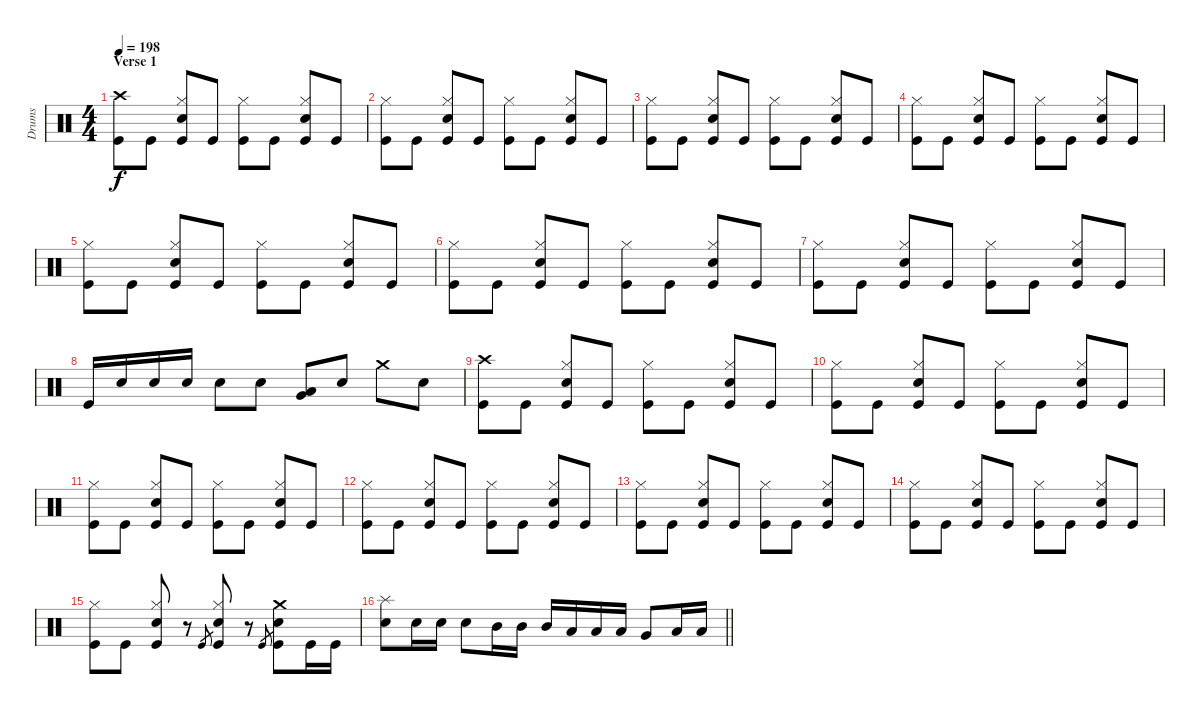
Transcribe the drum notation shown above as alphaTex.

\track ("Drums" "Drums") {instrument percussion}
\staff {score}
\articulation defaults
\ts (4 4)
\section ("" "Verse 1")
\tempo 198
\clef neutral
\ks c
("Crash high (hit)" "Kick (hit)").8{dy f} "Kick (hit)".8 ("Hi-Hat (closed)" "Electric Snare (hit)" "Kick (hit)").8 "Kick (hit)".8 ("Hi-Hat (closed)" "Kick (hit)").8 "Kick (hit)".8 ("Hi-Hat (closed)" "Electric Snare (hit)" "Kick (hit)").8 "Kick (hit)".8 |
("Hi-Hat (closed)" "Kick (hit)").8 "Kick (hit)".8 ("Hi-Hat (closed)" "Electric Snare (hit)" "Kick (hit)").8 "Kick (hit)".8 ("Hi-Hat (closed)" "Kick (hit)").8 "Kick (hit)".8 ("Hi-Hat (closed)" "Electric Snare (hit)" "Kick (hit)").8 "Kick (hit)".8 |
("Hi-Hat (closed)" "Kick (hit)").8 "Kick (hit)".8 ("Hi-Hat (closed)" "Electric Snare (hit)" "Kick (hit)").8 "Kick (hit)".8 ("Hi-Hat (closed)" "Kick (hit)").8 "Kick (hit)".8 ("Hi-Hat (closed)" "Electric Snare (hit)" "Kick (hit)").8 "Kick (hit)".8 |
("Hi-Hat (closed)" "Kick (hit)").8 "Kick (hit)".8 ("Hi-Hat (closed)" "Electric Snare (hit)" "Kick (hit)").8 "Kick (hit)".8 ("Hi-Hat (closed)" "Kick (hit)").8 "Kick (hit)".8 ("Hi-Hat (closed)" "Electric Snare (hit)" "Kick (hit)").8 "Kick (hit)".8 |
("Hi-Hat (closed)" "Kick (hit)").8 "Kick (hit)".8 ("Hi-Hat (closed)" "Electric Snare (hit)" "Kick (hit)").8 "Kick (hit)".8 ("Hi-Hat (closed)" "Kick (hit)").8 "Kick (hit)".8 ("Hi-Hat (closed)" "Electric Snare (hit)" "Kick (hit)").8 "Kick (hit)".8 |
("Hi-Hat (closed)" "Kick (hit)").8 "Kick (hit)".8 ("Hi-Hat (closed)" "Electric Snare (hit)" "Kick (hit)").8 "Kick (hit)".8 ("Hi-Hat (closed)" "Kick (hit)").8 "Kick (hit)".8 ("Hi-Hat (closed)" "Electric Snare (hit)" "Kick (hit)").8 "Kick (hit)".8 |
("Hi-Hat (closed)" "Kick (hit)").8 "Kick (hit)".8 ("Hi-Hat (closed)" "Electric Snare (hit)" "Kick (hit)").8 "Kick (hit)".8 ("Hi-Hat (closed)" "Kick (hit)").8 "Kick (hit)".8 ("Hi-Hat (closed)" "Electric Snare (hit)" "Kick (hit)").8 "Kick (hit)".8 |
"Kick (hit)".16 "Electric Snare (hit)".16 "Electric Snare (hit)".16 "Electric Snare (hit)".16 "Electric Snare (hit)".8 "Electric Snare (hit)".8 ("Very Low Tom (hit)" "Low Floor Tom (hit)").8 "Electric Snare (hit)".8 "Crash medium (hit)".8 "Electric Snare (hit)".8 |
("Crash high (hit)" "Kick (hit)").8 "Kick (hit)".8 ("Hi-Hat (closed)" "Electric Snare (hit)" "Kick (hit)").8 "Kick (hit)".8 ("Hi-Hat (closed)" "Kick (hit)").8 "Kick (hit)".8 ("Hi-Hat (closed)" "Electric Snare (hit)" "Kick (hit)").8 "Kick (hit)".8 |
("Hi-Hat (closed)" "Kick (hit)").8 "Kick (hit)".8 ("Hi-Hat (closed)" "Electric Snare (hit)" "Kick (hit)").8 "Kick (hit)".8 ("Hi-Hat (closed)" "Kick (hit)").8 "Kick (hit)".8 ("Hi-Hat (closed)" "Electric Snare (hit)" "Kick (hit)").8 "Kick (hit)".8 |
("Hi-Hat (closed)" "Kick (hit)").8 "Kick (hit)".8 ("Hi-Hat (closed)" "Electric Snare (hit)" "Kick (hit)").8 "Kick (hit)".8 ("Hi-Hat (closed)" "Kick (hit)").8 "Kick (hit)".8 ("Hi-Hat (closed)" "Electric Snare (hit)" "Kick (hit)").8 "Kick (hit)".8 |
("Hi-Hat (closed)" "Kick (hit)").8 "Kick (hit)".8 ("Hi-Hat (closed)" "Electric Snare (hit)" "Kick (hit)").8 "Kick (hit)".8 ("Hi-Hat (closed)" "Kick (hit)").8 "Kick (hit)".8 ("Hi-Hat (closed)" "Electric Snare (hit)" "Kick (hit)").8 "Kick (hit)".8 |
("Hi-Hat (closed)" "Kick (hit)").8 "Kick (hit)".8 ("Hi-Hat (closed)" "Electric Snare (hit)" "Kick (hit)").8 "Kick (hit)".8 ("Hi-Hat (closed)" "Kick (hit)").8 "Kick (hit)".8 ("Hi-Hat (closed)" "Electric Snare (hit)" "Kick (hit)").8 "Kick (hit)".8 |
("Hi-Hat (closed)" "Kick (hit)").8 "Kick (hit)".8 ("Hi-Hat (closed)" "Electric Snare (hit)" "Kick (hit)").8 "Kick (hit)".8 ("Hi-Hat (closed)" "Kick (hit)").8 "Kick (hit)".8 ("Hi-Hat (closed)" "Electric Snare (hit)" "Kick (hit)").8 "Kick (hit)".8 |
("Hi-Hat (closed)" "Kick (hit)").8 "Kick (hit)".8 ("Hi-Hat (closed)" "Electric Snare (hit)" "Kick (hit)").8 r.8 "Kick (hit)".8{gr} ("Hi-Hat (closed)" "Electric Snare (hit)" "Kick (hit)").8 r.8 "Kick (hit)".8{gr} ("Crash medium (hit)" "Electric Snare (hit)" "Kick (hit)").8 "Kick (hit)".16 "Kick (hit)".16 |
\barLineRight lightlight
("Splash (hit)" "Electric Snare (hit)").8 "Electric Snare (hit)".16 "Electric Snare (hit)".16 "Electric Snare (hit)".8 "Mid Tom (hit)".16 "Mid Tom (hit)".16 "Mid Tom (hit)".16 "Low Tom (hit)".16 "Low Tom (hit)".16 "Low Tom (hit)".16 "Very Low Tom (hit)".8 "Low Floor Tom (hit)".16 "Low Floor Tom (hit)".16
